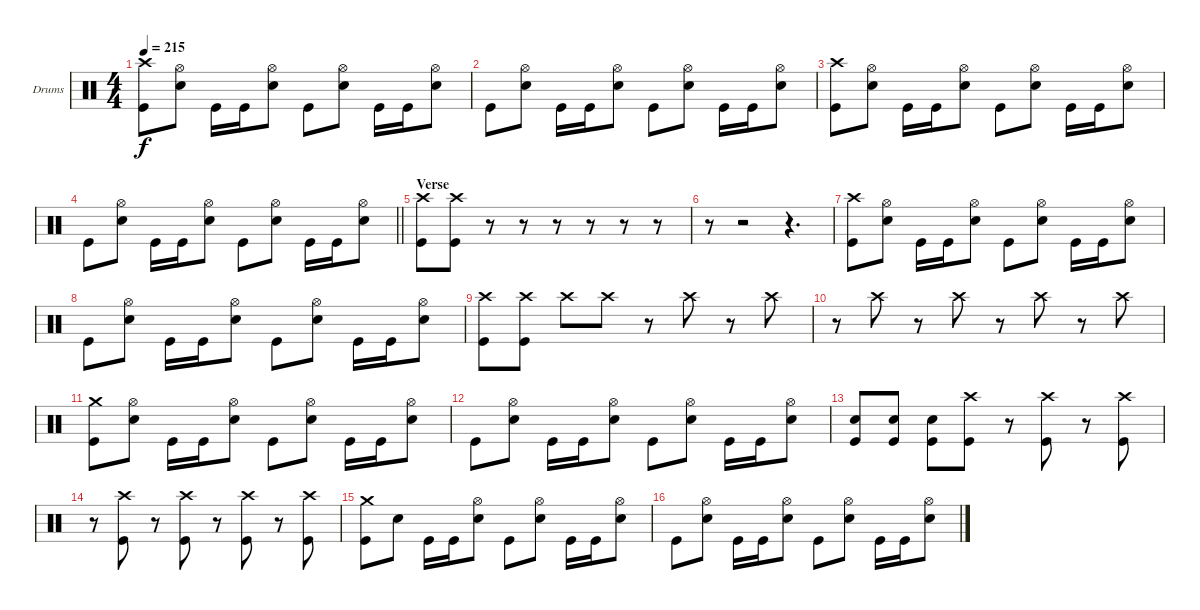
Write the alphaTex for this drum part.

\bracketExtendMode groupsimilarinstruments
\firstSystemTrackNameOrientation horizontal
\otherSystemsTrackNameOrientation horizontal
\track ("Dave McClain" "Drums") {instrument percussion}
\staff {score}
\articulation defaults
\ts (4 4)
\tempo 215
\clef neutral
\ks c
("Crash high (hit)" "Kick (hit)").8{dy f} ("Hi-Hat (open)" "Snare (hit) 2").8 "Kick (hit)".16 "Kick (hit)".16 ("Hi-Hat (open)" "Snare (hit) 2").8 "Kick (hit)".8 ("Hi-Hat (open)" "Snare (hit) 2").8 "Kick (hit)".16 "Kick (hit)".16 ("Hi-Hat (open)" "Snare (hit) 2").8 |
"Kick (hit)".8 ("Hi-Hat (open)" "Snare (hit) 2").8 "Kick (hit)".16 "Kick (hit)".16 ("Hi-Hat (open)" "Snare (hit) 2").8 "Kick (hit)".8 ("Hi-Hat (open)" "Snare (hit) 2").8 "Kick (hit)".16 "Kick (hit)".16 ("Hi-Hat (open)" "Snare (hit) 2").8 |
("Crash high (hit)" "Kick (hit)").8 ("Hi-Hat (open)" "Snare (hit) 2").8 "Kick (hit)".16 "Kick (hit)".16 ("Hi-Hat (open)" "Snare (hit) 2").8 "Kick (hit)".8 ("Hi-Hat (open)" "Snare (hit) 2").8 "Kick (hit)".16 "Kick (hit)".16 ("Hi-Hat (open)" "Snare (hit) 2").8 |
\barLineRight lightlight "Kick (hit)".8
("Hi-Hat (open)" "Snare (hit) 2").8 "Kick (hit)".16 "Kick (hit)".16 ("Hi-Hat (open)" "Snare (hit) 2").8 "Kick (hit)".8 ("Hi-Hat (open)" "Snare (hit) 2").8 "Kick (hit)".16 "Kick (hit)".16 ("Hi-Hat (open)" "Snare (hit) 2").8 |
\section ("" "Verse")
("Crash high (hit)" "Kick (hit)").8 ("Crash high (hit)" "Kick (hit)").8 r.8 r.8 r.8 r.8 r.8 r.8 |
r.8 r.2 r.4{d} |
("Crash high (hit)" "Kick (hit)").8 ("Hi-Hat (open)" "Snare (hit) 2").8 "Kick (hit)".16 "Kick (hit)".16 ("Hi-Hat (open)" "Snare (hit) 2").8 "Kick (hit)".8 ("Hi-Hat (open)" "Snare (hit) 2").8 "Kick (hit)".16 "Kick (hit)".16 ("Hi-Hat (open)" "Snare (hit) 2").8 |
"Kick (hit)".8 ("Hi-Hat (open)" "Snare (hit) 2").8 "Kick (hit)".16 "Kick (hit)".16 ("Hi-Hat (open)" "Snare (hit) 2").8 "Kick (hit)".8 ("Hi-Hat (open)" "Snare (hit) 2").8 "Kick (hit)".16 "Kick (hit)".16 ("Hi-Hat (open)" "Snare (hit) 2").8 |
("Crash high (hit)" "Kick (hit)").8 ("Crash high (hit)" "Kick (hit)").8 "Crash high (hit)".8 "Crash high (hit)".8 r.8 "Crash high (hit)".8 r.8 "Crash high (hit)".8 |
r.8 "Crash high (hit)".8 r.8 "Crash high (hit)".8 r.8 "Crash high (hit)".8 r.8 "Crash high (hit)".8 |
("Crash medium (hit)" "Kick (hit)").8 ("Hi-Hat (open)" "Snare (hit) 2").8 "Kick (hit)".16 "Kick (hit)".16 ("Hi-Hat (open)" "Snare (hit) 2").8 "Kick (hit)".8 ("Hi-Hat (open)" "Snare (hit) 2").8 "Kick (hit)".16 "Kick (hit)".16 ("Hi-Hat (open)" "Snare (hit) 2").8 |
"Kick (hit)".8 ("Hi-Hat (open)" "Snare (hit) 2").8 "Kick (hit)".16 "Kick (hit)".16 ("Hi-Hat (open)" "Snare (hit) 2").8 "Kick (hit)".8 ("Hi-Hat (open)" "Snare (hit) 2").8 "Kick (hit)".16 "Kick (hit)".16 ("Hi-Hat (open)" "Snare (hit) 2").8 |
("Snare (hit) 2" "Kick (hit)").8 ("Snare (hit) 2" "Kick (hit)").8 ("Snare (hit) 2" "Kick (hit)").8 ("Crash high (hit)" "Kick (hit)").8 r.8 ("Crash high (hit)" "Kick (hit)").8 r.8 ("Crash high (hit)" "Kick (hit)").8 |
r.8 ("Crash high (hit)" "Kick (hit)").8 r.8 ("Crash high (hit)" "Kick (hit)").8 r.8 ("Crash high (hit)" "Kick (hit)").8 r.8 ("Crash high (hit)" "Kick (hit)").8 |
("Crash medium (hit)" "Kick (hit)").8 "Snare (hit) 2".8 "Kick (hit)".16 "Kick (hit)".16 ("Hi-Hat (open)" "Snare (hit) 2").8 "Kick (hit)".8 ("Hi-Hat (open)" "Snare (hit) 2").8 "Kick (hit)".16 "Kick (hit)".16 ("Hi-Hat (open)" "Snare (hit) 2").8 |
"Kick (hit)".8 ("Hi-Hat (open)" "Snare (hit) 2").8 "Kick (hit)".16 "Kick (hit)".16 ("Hi-Hat (open)" "Snare (hit) 2").8 "Kick (hit)".8 ("Hi-Hat (open)" "Snare (hit) 2").8 "Kick (hit)".16 "Kick (hit)".16 ("Hi-Hat (open)" "Snare (hit) 2").8
